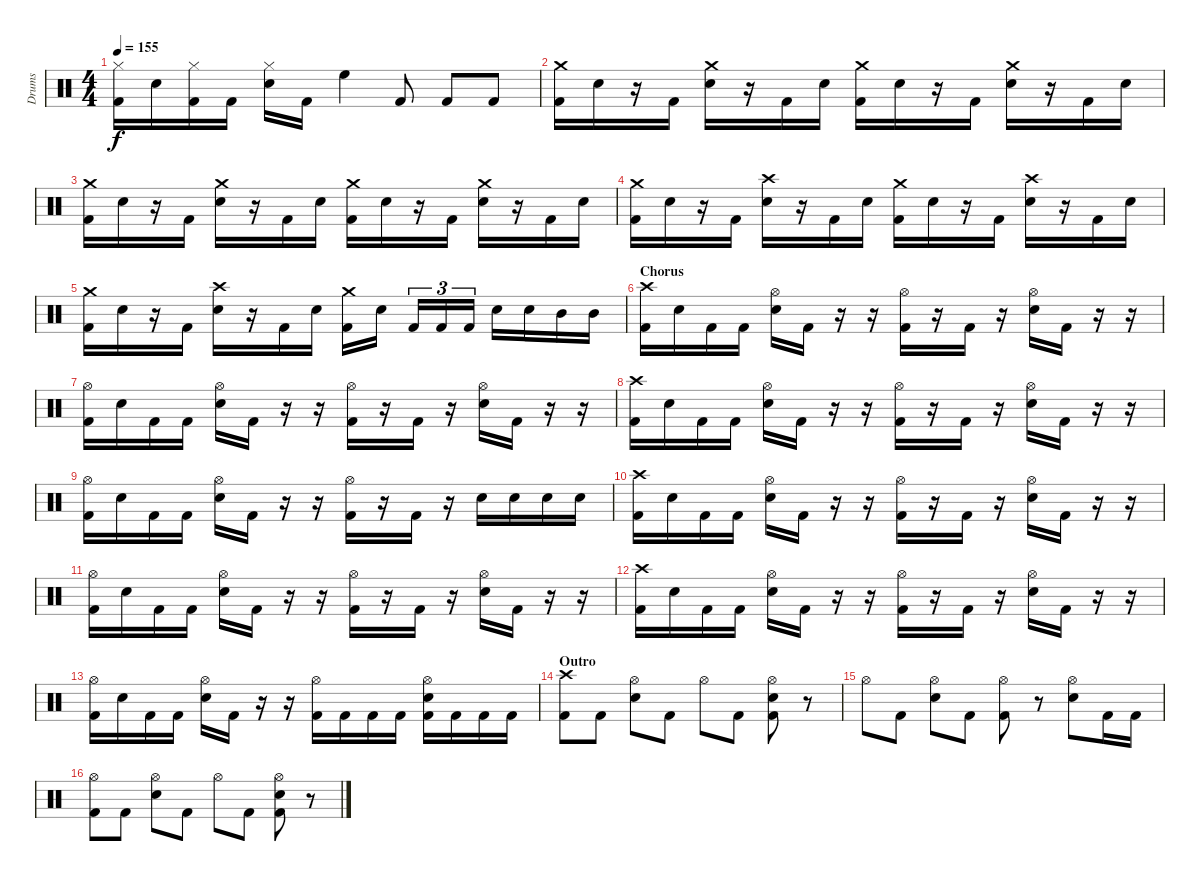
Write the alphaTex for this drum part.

\track ("Drums" "Drums") {instrument percussion}
\staff {score}
\articulation defaults
\ts (4 4)
\tempo 155
\clef neutral
\ks c
("Hi-Hat (closed)" "Kick (hit) 2").16{dy f} "Electric Snare (hit)".16 ("Hi-Hat (closed)" "Kick (hit) 2").16 "Kick (hit) 2".16 ("Hi-Hat (closed)" "Electric Snare (hit)").16 "Kick (hit) 2".16 "High Floor Tom (hit)".4 "Kick (hit) 2".8 "Kick (hit) 2".8 "Kick (hit) 2".8 |
("Crash medium (hit)" "Kick (hit) 2").16 "Electric Snare (hit)".16 r.16 "Kick (hit) 2".16 ("Crash medium (hit)" "Electric Snare (hit)").16 r.16 "Kick (hit) 2".16 "Electric Snare (hit)".16 ("Crash medium (hit)" "Kick (hit) 2").16 "Electric Snare (hit)".16 r.16 "Kick (hit) 2".16 ("Crash medium (hit)" "Electric Snare (hit)").16 r.16 "Kick (hit) 2".16 "Electric Snare (hit)".16 |
("Crash medium (hit)" "Kick (hit) 2").16 "Electric Snare (hit)".16 r.16 "Kick (hit) 2".16 ("Crash medium (hit)" "Electric Snare (hit)").16 r.16 "Kick (hit) 2".16 "Electric Snare (hit)".16 ("Crash medium (hit)" "Kick (hit) 2").16 "Electric Snare (hit)".16 r.16 "Kick (hit) 2".16 ("Crash medium (hit)" "Electric Snare (hit)").16 r.16 "Kick (hit) 2".16 "Electric Snare (hit)".16 |
("Crash medium (hit)" "Kick (hit) 2").16 "Electric Snare (hit)".16 r.16 "Kick (hit) 2".16 ("Crash high (hit)" "Electric Snare (hit)").16 r.16 "Kick (hit) 2".16 "Electric Snare (hit)".16 ("Crash medium (hit)" "Kick (hit) 2").16 "Electric Snare (hit)".16 r.16 "Kick (hit) 2".16 ("Crash high (hit)" "Electric Snare (hit)").16 r.16 "Kick (hit) 2".16 "Electric Snare (hit)".16 |
("Crash medium (hit)" "Kick (hit) 2").16 "Electric Snare (hit)".16 r.16 "Kick (hit) 2".16 ("Crash high (hit)" "Electric Snare (hit)").16 r.16 "Kick (hit) 2".16 "Electric Snare (hit)".16 ("Crash medium (hit)" "Kick (hit) 2").16 "Electric Snare (hit)".16 "Kick (hit) 2".16{tu (3 2)} "Kick (hit) 2".16{tu (3 2)} "Kick (hit) 2".16{tu (3 2)} "Electric Snare (hit)".16 "Electric Snare (hit)".16 "Mid Tom (hit)".16 "Mid Tom (hit)".16 |
\section ("" "Chorus")
("Crash high (hit)" "Kick (hit) 2").16 "Electric Snare (hit)".16 "Kick (hit) 2".16 "Kick (hit) 2".16 ("Hi-Hat (open)" "Electric Snare (hit)").16 "Kick (hit) 2".16 r.16 r.16 ("Hi-Hat (open)" "Kick (hit) 2").16 r.16 "Kick (hit) 2".16 r.16 ("Hi-Hat (open)" "Electric Snare (hit)").16 "Kick (hit) 2".16 r.16 r.16 |
("Hi-Hat (open)" "Kick (hit) 2").16 "Electric Snare (hit)".16 "Kick (hit) 2".16 "Kick (hit) 2".16 ("Hi-Hat (open)" "Electric Snare (hit)").16 "Kick (hit) 2".16 r.16 r.16 ("Hi-Hat (open)" "Kick (hit) 2").16 r.16 "Kick (hit) 2".16 r.16 ("Hi-Hat (open)" "Electric Snare (hit)").16 "Kick (hit) 2".16 r.16 r.16 |
("Crash high (hit)" "Kick (hit) 2").16 "Electric Snare (hit)".16 "Kick (hit) 2".16 "Kick (hit) 2".16 ("Hi-Hat (open)" "Electric Snare (hit)").16 "Kick (hit) 2".16 r.16 r.16 ("Hi-Hat (open)" "Kick (hit) 2").16 r.16 "Kick (hit) 2".16 r.16 ("Hi-Hat (open)" "Electric Snare (hit)").16 "Kick (hit) 2".16 r.16 r.16 |
("Hi-Hat (open)" "Kick (hit) 2").16 "Electric Snare (hit)".16 "Kick (hit) 2".16 "Kick (hit) 2".16 ("Hi-Hat (open)" "Electric Snare (hit)").16 "Kick (hit) 2".16 r.16 r.16 ("Hi-Hat (open)" "Kick (hit) 2").16 r.16 "Kick (hit) 2".16 r.16 "Electric Snare (hit)".16 "Electric Snare (hit)".16 "Electric Snare (hit)".16 "Electric Snare (hit)".16 |
("Crash high (hit)" "Kick (hit) 2").16 "Electric Snare (hit)".16 "Kick (hit) 2".16 "Kick (hit) 2".16 ("Hi-Hat (open)" "Electric Snare (hit)").16 "Kick (hit) 2".16 r.16 r.16 ("Hi-Hat (open)" "Kick (hit) 2").16 r.16 "Kick (hit) 2".16 r.16 ("Hi-Hat (open)" "Electric Snare (hit)").16 "Kick (hit) 2".16 r.16 r.16 |
("Hi-Hat (open)" "Kick (hit) 2").16 "Electric Snare (hit)".16 "Kick (hit) 2".16 "Kick (hit) 2".16 ("Hi-Hat (open)" "Electric Snare (hit)").16 "Kick (hit) 2".16 r.16 r.16 ("Hi-Hat (open)" "Kick (hit) 2").16 r.16 "Kick (hit) 2".16 r.16 ("Hi-Hat (open)" "Electric Snare (hit)").16 "Kick (hit) 2".16 r.16 r.16 |
("Crash high (hit)" "Kick (hit) 2").16 "Electric Snare (hit)".16 "Kick (hit) 2".16 "Kick (hit) 2".16 ("Hi-Hat (open)" "Electric Snare (hit)").16 "Kick (hit) 2".16 r.16 r.16 ("Hi-Hat (open)" "Kick (hit) 2").16 r.16 "Kick (hit) 2".16 r.16 ("Hi-Hat (open)" "Electric Snare (hit)").16 "Kick (hit) 2".16 r.16 r.16 |
("Hi-Hat (open)" "Kick (hit) 2").16 "Electric Snare (hit)".16 "Kick (hit) 2".16 "Kick (hit) 2".16 ("Hi-Hat (open)" "Electric Snare (hit)").16 "Kick (hit) 2".16 r.16 r.16 ("Hi-Hat (open)" "Kick (hit) 2").16 "Kick (hit) 2".16 "Kick (hit) 2".16 "Kick (hit) 2".16 ("Hi-Hat (open)" "Electric Snare (hit)" "Kick (hit) 2").16 "Kick (hit) 2".16 "Kick (hit) 2".16 "Kick (hit) 2".16 |
\section ("" "Outro")
("Crash high (hit)" "Kick (hit) 2").8 "Kick (hit) 2".8 ("Hi-Hat (open)" "Electric Snare (hit)").8 "Kick (hit) 2".8 "Hi-Hat (open)".8 "Kick (hit) 2".8 ("Hi-Hat (open)" "Electric Snare (hit)" "Kick (hit) 2").8 r.8 |
"Hi-Hat (open)".8 "Kick (hit) 2".8 ("Hi-Hat (open)" "Electric Snare (hit)").8 "Kick (hit) 2".8 ("Hi-Hat (open)" "Kick (hit) 2").8 r.8 ("Hi-Hat (open)" "Electric Snare (hit)").8 "Kick (hit) 2".16 "Kick (hit) 2".16 |
("Hi-Hat (open)" "Kick (hit) 2").8 "Kick (hit) 2".8 ("Hi-Hat (open)" "Electric Snare (hit)").8 "Kick (hit) 2".8 "Hi-Hat (open)".8 "Kick (hit) 2".8 ("Hi-Hat (open)" "Electric Snare (hit)" "Kick (hit) 2").8 r.8
